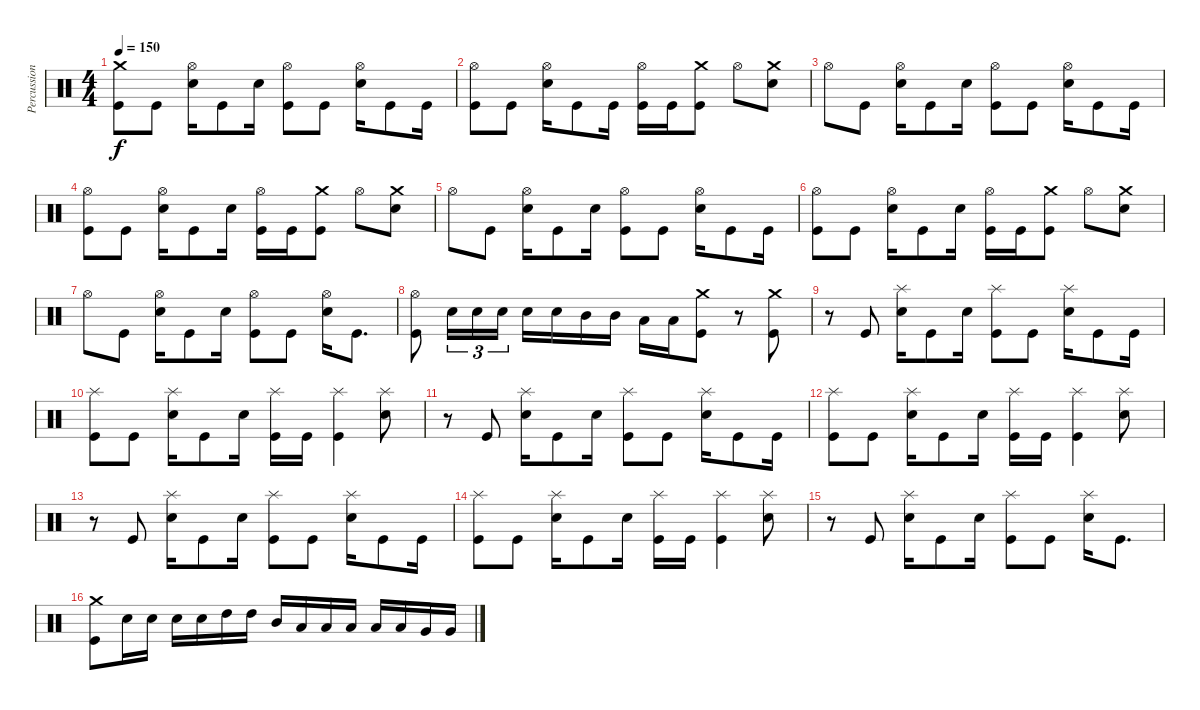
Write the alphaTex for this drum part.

\track ("Percussions" "Percussion") {instrument percussion}
\staff {score}
\articulation defaults
\ts (4 4)
\tempo 150
\clef neutral
\ks c
("Kick (hit)" "Crash medium (hit)").8{dy f} "Kick (hit)".8 ("Electric Snare (hit)" "Hi-Hat (open)").16 "Kick (hit)".8 "Electric Snare (hit)".16 ("Kick (hit)" "Hi-Hat (open)").8 "Kick (hit)".8 ("Electric Snare (hit)" "Hi-Hat (open)").16 "Kick (hit)".8 "Kick (hit)".16 |
("Kick (hit)" "Hi-Hat (open)").8 "Kick (hit)".8 ("Electric Snare (hit)" "Hi-Hat (open)").16 "Kick (hit)".8 "Kick (hit)".16 ("Kick (hit)" "Hi-Hat (open)").16 "Kick (hit)".16 ("Kick (hit)" "Crash medium (hit)").8 "Hi-Hat (open)".8 ("Electric Snare (hit)" "Crash medium (hit)").8 |
"Hi-Hat (open)".8 "Kick (hit)".8 ("Electric Snare (hit)" "Hi-Hat (open)").16 "Kick (hit)".8 "Electric Snare (hit)".16 ("Kick (hit)" "Hi-Hat (open)").8 "Kick (hit)".8 ("Electric Snare (hit)" "Hi-Hat (open)").16 "Kick (hit)".8 "Kick (hit)".16 |
("Kick (hit)" "Hi-Hat (open)").8 "Kick (hit)".8 ("Electric Snare (hit)" "Hi-Hat (open)").16 "Kick (hit)".8 "Electric Snare (hit)".16 ("Kick (hit)" "Hi-Hat (open)").16 "Kick (hit)".16 ("Kick (hit)" "Crash medium (hit)").8 "Hi-Hat (open)".8 ("Electric Snare (hit)" "Crash medium (hit)").8 |
"Hi-Hat (open)".8 "Kick (hit)".8 ("Electric Snare (hit)" "Hi-Hat (open)").16 "Kick (hit)".8 "Electric Snare (hit)".16 ("Kick (hit)" "Hi-Hat (open)").8 "Kick (hit)".8 ("Electric Snare (hit)" "Hi-Hat (open)").16 "Kick (hit)".8 "Kick (hit)".16 |
("Kick (hit)" "Hi-Hat (open)").8 "Kick (hit)".8 ("Electric Snare (hit)" "Hi-Hat (open)").16 "Kick (hit)".8 "Electric Snare (hit)".16 ("Kick (hit)" "Hi-Hat (open)").16 "Kick (hit)".16 ("Kick (hit)" "Crash medium (hit)").8 "Hi-Hat (open)".8 ("Electric Snare (hit)" "Crash medium (hit)").8 |
"Hi-Hat (open)".8 "Kick (hit)".8 ("Electric Snare (hit)" "Hi-Hat (open)").16 "Kick (hit)".8 "Electric Snare (hit)".16 ("Kick (hit)" "Hi-Hat (open)").8 "Kick (hit)".8 ("Electric Snare (hit)" "Hi-Hat (open)").16 "Kick (hit)".8{d} |
("Kick (hit)" "Hi-Hat (open)").8 "Electric Snare (hit)".16{tu (3 2)} "Electric Snare (hit)".16{tu (3 2)} "Electric Snare (hit)".16{tu (3 2)} "Electric Snare (hit)".16 "Electric Snare (hit)".16 "Mid Tom (hit)".16 "Mid Tom (hit)".16 "Low Tom (hit)".16 "Low Tom (hit)".16 ("Kick (hit)" "Crash medium (hit)").8 r.8 ("Kick (hit)" "Crash medium (hit)").8 |
r.8 "Kick (hit)".8 ("Electric Snare (hit)" "Splash (hit)").16 "Kick (hit)".8 "Electric Snare (hit)".16 ("Kick (hit)" "Splash (hit)").8 "Kick (hit)".8 ("Electric Snare (hit)" "Splash (hit)").16 "Kick (hit)".8 "Kick (hit)".16 |
("Kick (hit)" "Splash (hit)").8 "Kick (hit)".8 ("Electric Snare (hit)" "Splash (hit)").16 "Kick (hit)".8 "Electric Snare (hit)".16 ("Kick (hit)" "Splash (hit)").16 "Kick (hit)".16 ("Kick (hit)" "Splash (hit)").4 ("Electric Snare (hit)" "Splash (hit)").8 |
r.8 "Kick (hit)".8 ("Electric Snare (hit)" "Splash (hit)").16 "Kick (hit)".8 "Electric Snare (hit)".16 ("Kick (hit)" "Splash (hit)").8 "Kick (hit)".8 ("Electric Snare (hit)" "Splash (hit)").16 "Kick (hit)".8 "Kick (hit)".16 |
("Kick (hit)" "Splash (hit)").8 "Kick (hit)".8 ("Electric Snare (hit)" "Splash (hit)").16 "Kick (hit)".8 "Electric Snare (hit)".16 ("Kick (hit)" "Splash (hit)").16 "Kick (hit)".16 ("Kick (hit)" "Splash (hit)").4 ("Electric Snare (hit)" "Splash (hit)").8 |
r.8 "Kick (hit)".8 ("Electric Snare (hit)" "Splash (hit)").16 "Kick (hit)".8 "Electric Snare (hit)".16 ("Kick (hit)" "Splash (hit)").8 "Kick (hit)".8 ("Electric Snare (hit)" "Splash (hit)").16 "Kick (hit)".8 "Kick (hit)".16 |
("Kick (hit)" "Splash (hit)").8 "Kick (hit)".8 ("Electric Snare (hit)" "Splash (hit)").16 "Kick (hit)".8 "Electric Snare (hit)".16 ("Kick (hit)" "Splash (hit)").16 "Kick (hit)".16 ("Kick (hit)" "Splash (hit)").4 ("Electric Snare (hit)" "Splash (hit)").8 |
r.8 "Kick (hit)".8 ("Electric Snare (hit)" "Splash (hit)").16 "Kick (hit)".8 "Electric Snare (hit)".16 ("Kick (hit)" "Splash (hit)").8 "Kick (hit)".8 ("Electric Snare (hit)" "Splash (hit)").16 "Kick (hit)".8{d} |
("Kick (hit)" "Crash medium (hit)").8 "Electric Snare (hit)".16 "Electric Snare (hit)".16 "Electric Snare (hit)".16 "Electric Snare (hit)".16 "High Tom (hit)".16 "High Tom (hit)".16 "Mid Tom (hit)".16 "Low Tom (hit)".16 "Low Tom (hit)".16 "Low Tom (hit)".16 "Low Tom (hit)".16 "Low Tom (hit)".16 "Very Low Tom (hit)".16 "Very Low Tom (hit)".16
